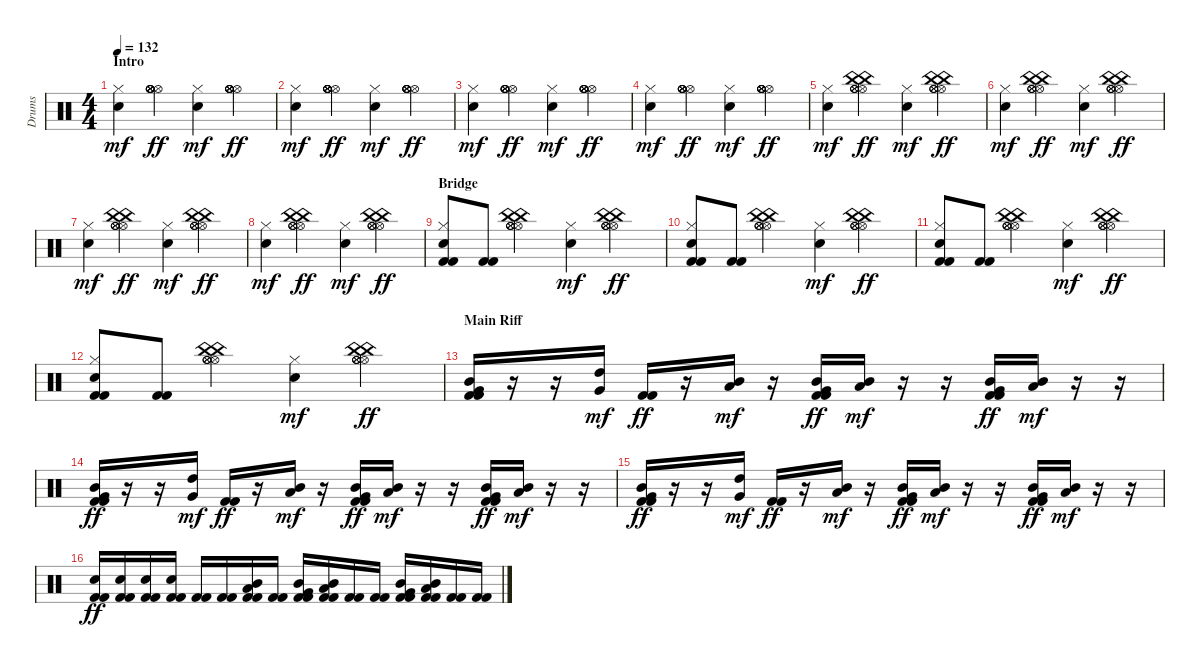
\track ("Drums" "Drums") {instrument percussion}
\staff {score}
\articulation defaults
\ts (4 4)
\section ("" "Intro")
\tempo 132
\clef neutral
\ks c
("Snare (hit)"{x} "Hi-Hat (closed)").4{dy mf} ("Hi-Hat (open)" "Hi-Hat (open)" "Hi-Hat (open)" "Hi-Hat (open)" "Hi-Hat (open)" "Hi-Hat (open)").4{dy ff} ("Snare (hit)"{x} "Hi-Hat (closed)").4{dy mf} ("Hi-Hat (open)" "Hi-Hat (open)" "Hi-Hat (open)" "Hi-Hat (open)" "Hi-Hat (open)" "Hi-Hat (open)").4{dy ff} |
("Snare (hit)"{x} "Hi-Hat (closed)").4{dy mf} ("Hi-Hat (open)" "Hi-Hat (open)" "Hi-Hat (open)" "Hi-Hat (open)" "Hi-Hat (open)" "Hi-Hat (open)").4{dy ff} ("Snare (hit)"{x} "Hi-Hat (closed)").4{dy mf} ("Hi-Hat (open)" "Hi-Hat (open)" "Hi-Hat (open)" "Hi-Hat (open)" "Hi-Hat (open)" "Hi-Hat (open)").4{dy ff} |
("Snare (hit)"{x} "Hi-Hat (closed)").4{dy mf} ("Hi-Hat (open)" "Hi-Hat (open)" "Hi-Hat (open)" "Hi-Hat (open)" "Hi-Hat (open)" "Hi-Hat (open)").4{dy ff} ("Snare (hit)"{x} "Hi-Hat (closed)").4{dy mf} ("Hi-Hat (open)" "Hi-Hat (open)" "Hi-Hat (open)" "Hi-Hat (open)" "Hi-Hat (open)" "Hi-Hat (open)").4{dy ff} |
("Snare (hit)"{x} "Hi-Hat (closed)").4{dy mf} ("Hi-Hat (open)" "Hi-Hat (open)" "Hi-Hat (open)" "Hi-Hat (open)" "Hi-Hat (open)" "Hi-Hat (open)").4{dy ff} ("Snare (hit)"{x} "Hi-Hat (closed)").4{dy mf} ("Hi-Hat (open)" "Hi-Hat (open)" "Hi-Hat (open)" "Hi-Hat (open)" "Hi-Hat (open)" "Hi-Hat (open)").4{dy ff} |
("Snare (hit)"{x} "Hi-Hat (closed)").4{dy mf} ("Hi-Hat (open)" "Hi-Hat (open)" "Hi-Hat (open)" "Hi-Hat (open)" "China (hit)" "China (hit)").4{dy ff} ("Snare (hit)"{x} "Hi-Hat (closed)").4{dy mf} ("Hi-Hat (open)" "Hi-Hat (open)" "Hi-Hat (open)" "Hi-Hat (open)" "China (hit)" "China (hit)").4{dy ff} |
("Snare (hit)"{x} "Hi-Hat (closed)").4{dy mf} ("Hi-Hat (open)" "Hi-Hat (open)" "Hi-Hat (open)" "Hi-Hat (open)" "China (hit)" "China (hit)").4{dy ff} ("Snare (hit)"{x} "Hi-Hat (closed)").4{dy mf} ("Hi-Hat (open)" "Hi-Hat (open)" "Hi-Hat (open)" "Hi-Hat (open)" "China (hit)" "China (hit)").4{dy ff} |
("Snare (hit)"{x} "Hi-Hat (closed)").4{dy mf} ("Hi-Hat (open)" "Hi-Hat (open)" "Hi-Hat (open)" "Hi-Hat (open)" "China (hit)" "China (hit)").4{dy ff} ("Snare (hit)"{x} "Hi-Hat (closed)").4{dy mf} ("Hi-Hat (open)" "Hi-Hat (open)" "Hi-Hat (open)" "Hi-Hat (open)" "China (hit)" "China (hit)").4{dy ff} |
("Snare (hit)"{x} "Hi-Hat (closed)").4{dy mf} ("Hi-Hat (open)" "Hi-Hat (open)" "Hi-Hat (open)" "Hi-Hat (open)" "China (hit)" "China (hit)").4{dy ff} ("Snare (hit)"{x} "Hi-Hat (closed)").4{dy mf} ("Hi-Hat (open)" "Hi-Hat (open)" "Hi-Hat (open)" "Hi-Hat (open)" "China (hit)" "China (hit)").4{dy ff} |
\section ("" "Bridge")
("Snare (hit)"{x} "Hi-Hat (closed)" "Kick (hit) 2" "Kick (hit) 2").8 ("Kick (hit) 2" "Kick (hit) 2").8 ("Hi-Hat (open)" "Hi-Hat (open)" "Hi-Hat (open)" "Hi-Hat (open)" "China (hit)" "China (hit)").4 ("Snare (hit)"{x} "Hi-Hat (closed)").4{dy mf} ("Hi-Hat (open)" "Hi-Hat (open)" "Hi-Hat (open)" "Hi-Hat (open)" "China (hit)" "China (hit)").4{dy ff} |
("Snare (hit)"{x} "Hi-Hat (closed)" "Kick (hit) 2" "Kick (hit) 2").8 ("Kick (hit) 2" "Kick (hit) 2").8 ("Hi-Hat (open)" "Hi-Hat (open)" "Hi-Hat (open)" "Hi-Hat (open)" "China (hit)" "China (hit)").4 ("Snare (hit)"{x} "Hi-Hat (closed)").4{dy mf} ("Hi-Hat (open)" "Hi-Hat (open)" "Hi-Hat (open)" "Hi-Hat (open)" "China (hit)" "China (hit)").4{dy ff} |
("Snare (hit)"{x} "Hi-Hat (closed)" "Kick (hit) 2" "Kick (hit) 2").8 ("Kick (hit) 2" "Kick (hit) 2").8 ("Hi-Hat (open)" "Hi-Hat (open)" "Hi-Hat (open)" "Hi-Hat (open)" "China (hit)" "China (hit)").4 ("Snare (hit)"{x} "Hi-Hat (closed)").4{dy mf} ("Hi-Hat (open)" "Hi-Hat (open)" "Hi-Hat (open)" "Hi-Hat (open)" "China (hit)" "China (hit)").4{dy ff} |
("Snare (hit)"{x} "Hi-Hat (closed)" "Kick (hit) 2" "Kick (hit) 2").8 ("Kick (hit) 2" "Kick (hit) 2").8 ("Hi-Hat (open)" "Hi-Hat (open)" "Hi-Hat (open)" "Hi-Hat (open)" "China (hit)" "China (hit)").4 ("Snare (hit)"{x} "Hi-Hat (closed)").4{dy mf} ("Hi-Hat (open)" "Hi-Hat (open)" "Hi-Hat (open)" "Hi-Hat (open)" "China (hit)" "China (hit)").4{dy ff} |
\section ("" "Main Riff")
("Mid Tom (hit)" "Very Low Tom (hit)" "Kick (hit) 2" "Kick (hit) 2").16 r.16 r.16 ("High Tom (hit)" "Very Low Tom (hit)").16{dy mf} ("Kick (hit) 2" "Kick (hit) 2").16{dy ff} r.16 ("Mid Tom (hit)" "Low Tom (hit)").16{dy mf} r.16 ("Mid Tom (hit)" "Very Low Tom (hit)" "Kick (hit) 2" "Kick (hit) 2").16{dy ff} ("Low Tom (hit)" "Mid Tom (hit)").16{dy mf} r.16 r.16 ("Mid Tom (hit)" "Very Low Tom (hit)" "Kick (hit) 2" "Kick (hit) 2").16{dy ff} ("Mid Tom (hit)" "Low Tom (hit)").16{dy mf} r.16 r.16 |
("Mid Tom (hit)" "Very Low Tom (hit)" "Kick (hit) 2" "Kick (hit) 2").16{dy ff} r.16 r.16 ("High Tom (hit)" "Very Low Tom (hit)").16{dy mf} ("Kick (hit) 2" "Kick (hit) 2").16{dy ff} r.16 ("Mid Tom (hit)" "Low Tom (hit)").16{dy mf} r.16 ("Mid Tom (hit)" "Very Low Tom (hit)" "Kick (hit) 2" "Kick (hit) 2").16{dy ff} ("Low Tom (hit)" "Mid Tom (hit)").16{dy mf} r.16 r.16 ("Mid Tom (hit)" "Very Low Tom (hit)" "Kick (hit) 2" "Kick (hit) 2").16{dy ff} ("Mid Tom (hit)" "Low Tom (hit)").16{dy mf} r.16 r.16 |
("Mid Tom (hit)" "Very Low Tom (hit)" "Kick (hit) 2" "Kick (hit) 2").16{dy ff} r.16 r.16 ("High Tom (hit)" "Very Low Tom (hit)").16{dy mf} ("Kick (hit) 2" "Kick (hit) 2").16{dy ff} r.16 ("Mid Tom (hit)" "Low Tom (hit)").16{dy mf} r.16 ("Mid Tom (hit)" "Very Low Tom (hit)" "Kick (hit) 2" "Kick (hit) 2").16{dy ff} ("Low Tom (hit)" "Mid Tom (hit)").16{dy mf} r.16 r.16 ("Mid Tom (hit)" "Very Low Tom (hit)" "Kick (hit) 2" "Kick (hit) 2").16{dy ff} ("Mid Tom (hit)" "Low Tom (hit)").16{dy mf} r.16 r.16 |
("Electric Snare (hit)" "Kick (hit) 2" "Kick (hit) 2").16{dy ff} ("Electric Snare (hit)" "Kick (hit) 2" "Kick (hit) 2").16 ("Electric Snare (hit)" "Kick (hit) 2" "Kick (hit) 2").16 ("Electric Snare (hit)" "Kick (hit) 2" "Kick (hit) 2").16 ("Kick (hit) 2" "Kick (hit) 2").16 ("Kick (hit) 2" "Kick (hit) 2").16 ("Mid Tom (hit)" "Low Tom (hit)" "Kick (hit) 2" "Kick (hit) 2").16 ("Kick (hit) 2" "Kick (hit) 2").16 ("Mid Tom (hit)" "Very Low Tom (hit)" "Kick (hit) 2" "Kick (hit) 2").16 ("Low Tom (hit)" "Mid Tom (hit)" "Kick (hit) 2" "Kick (hit) 2").16 ("Kick (hit) 2" "Kick (hit) 2").16 ("Kick (hit) 2" "Kick (hit) 2").16 ("Mid Tom (hit)" "Very Low Tom (hit)" "Kick (hit) 2" "Kick (hit) 2").16 ("Mid Tom (hit)" "Low Tom (hit)" "Kick (hit) 2" "Kick (hit) 2").16 ("Kick (hit) 2" "Kick (hit) 2").16 ("Kick (hit) 2" "Kick (hit) 2").16
